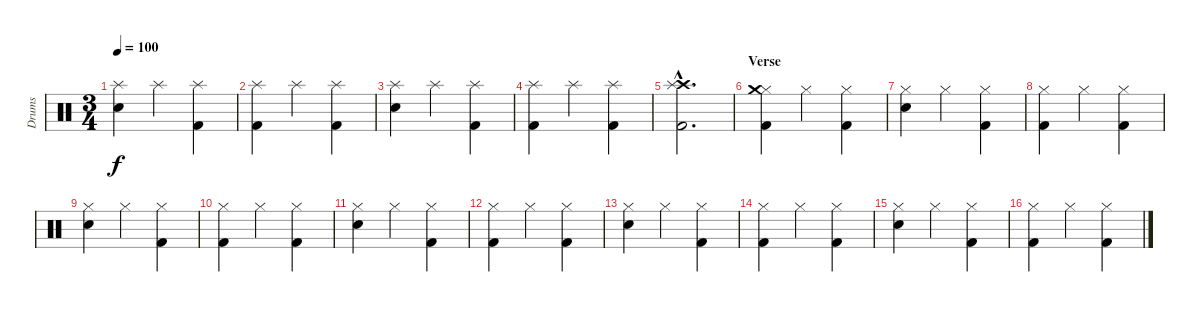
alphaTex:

\track ("Drums" "Drums") {instrument percussion}
\staff {score}
\articulation defaults
\ts (3 4)
\tempo 100
\clef neutral
\ks c
("Splash (hit)" "Electric Snare (hit)").4{dy f} "Splash (hit)".4 ("Splash (hit)" "Kick (hit) 2").4 |
("Splash (hit)" "Kick (hit) 2").4 "Splash (hit)".4 ("Splash (hit)" "Kick (hit) 2").4 |
("Splash (hit)" "Electric Snare (hit)").4 "Splash (hit)".4 ("Splash (hit)" "Kick (hit) 2").4 |
("Splash (hit)" "Kick (hit) 2").4 "Splash (hit)".4 ("Splash (hit)" "Kick (hit) 2").4 |
("Crash high (hit)"{hac} "Splash (hit)"{hac} "Kick (hit) 2"{hac}).2{d} |
\section ("" "Verse")
("Hi-Hat (closed)" "Crash medium (hit)" "Kick (hit) 2").4 "Hi-Hat (closed)".4 ("Hi-Hat (closed)" "Kick (hit) 2").4 |
("Hi-Hat (closed)" "Electric Snare (hit)").4 "Hi-Hat (closed)".4 ("Hi-Hat (closed)" "Kick (hit) 2").4 |
("Hi-Hat (closed)" "Kick (hit) 2").4 "Hi-Hat (closed)".4 ("Hi-Hat (closed)" "Kick (hit) 2").4 |
("Hi-Hat (closed)" "Electric Snare (hit)").4 "Hi-Hat (closed)".4 ("Hi-Hat (closed)" "Kick (hit) 2").4 |
("Hi-Hat (closed)" "Kick (hit) 2").4 "Hi-Hat (closed)".4 ("Hi-Hat (closed)" "Kick (hit) 2").4 |
("Hi-Hat (closed)" "Electric Snare (hit)").4 "Hi-Hat (closed)".4 ("Hi-Hat (closed)" "Kick (hit) 2").4 |
("Hi-Hat (closed)" "Kick (hit) 2").4 "Hi-Hat (closed)".4 ("Hi-Hat (closed)" "Kick (hit) 2").4 |
("Hi-Hat (closed)" "Electric Snare (hit)").4 "Hi-Hat (closed)".4 ("Hi-Hat (closed)" "Kick (hit) 2").4 |
("Hi-Hat (closed)" "Kick (hit) 2").4 "Hi-Hat (closed)".4 ("Hi-Hat (closed)" "Kick (hit) 2").4 |
("Hi-Hat (closed)" "Electric Snare (hit)").4 "Hi-Hat (closed)".4 ("Hi-Hat (closed)" "Kick (hit) 2").4 |
("Hi-Hat (closed)" "Kick (hit) 2").4 "Hi-Hat (closed)".4 ("Hi-Hat (closed)" "Kick (hit) 2").4
